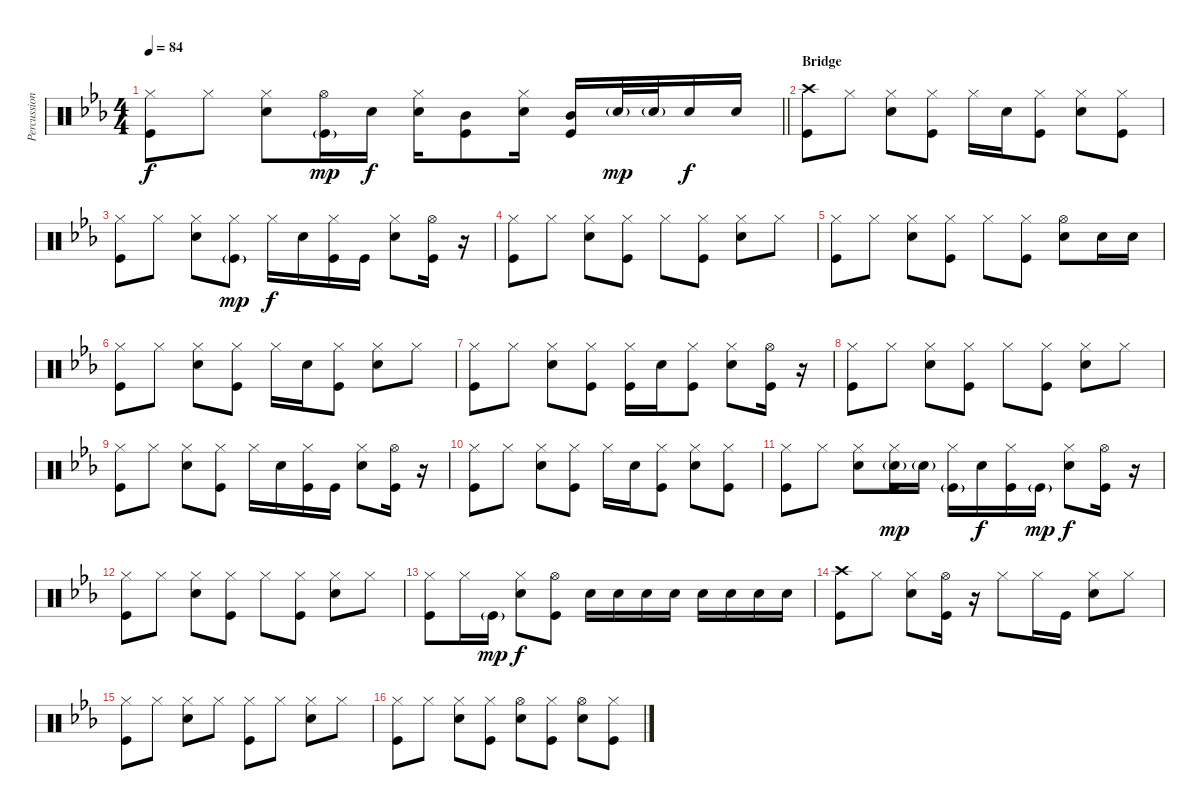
\track ("Percussion" "Percussion") {instrument percussion}
\staff {score}
\articulation defaults
\ts (4 4)
\tempo 84
\clef neutral
\barLineRight lightlight
\ks eb
("Hi-Hat (closed)" "Kick (hit)").8{dy f} "Hi-Hat (closed)".8 ("Hi-Hat (closed)" "Snare (hit) 2").8 ("Hi-Hat (open)" "Kick (hit)"{g}).16{dy mp} "Snare (hit) 2".16{dy f} ("Hi-Hat (closed)" "Snare (hit) 2").16 ("Mid Tom (hit)" "Kick (hit)").8 ("Hi-Hat (closed)" "Snare (hit) 2").16 ("Mid Tom (hit)" "Kick (hit)").16 "Snare (hit) 2"{g}.32{dy mp} "Snare (hit) 2"{g}.32 "Snare (hit) 2".16{dy f} "Snare (hit) 2".16 |
\section ("" "Bridge")
("Crash high (hit)" "Kick (hit)").8 "Hi-Hat (closed)".8 ("Hi-Hat (closed)" "Snare (hit) 2").8 ("Hi-Hat (closed)" "Kick (hit)").8 "Hi-Hat (closed)".16 "Snare (hit) 2".16 ("Hi-Hat (closed)" "Kick (hit)").8 ("Hi-Hat (closed)" "Snare (hit) 2").8 ("Hi-Hat (closed)" "Kick (hit)").8 |
("Hi-Hat (closed)" "Kick (hit)").8 "Hi-Hat (closed)".8 ("Hi-Hat (closed)" "Snare (hit) 2").8 ("Hi-Hat (closed)" "Kick (hit)"{g}).8{dy mp} "Hi-Hat (closed)".16{dy f} "Snare (hit) 2".16 ("Hi-Hat (closed)" "Kick (hit)").16 "Kick (hit)".16 ("Hi-Hat (closed)" "Snare (hit) 2").8 ("Hi-Hat (open)" "Kick (hit)").16 r.16 |
("Hi-Hat (closed)" "Kick (hit)").8 "Hi-Hat (closed)".8 ("Hi-Hat (closed)" "Snare (hit) 2").8 ("Hi-Hat (closed)" "Kick (hit)").8 "Hi-Hat (closed)".8 ("Hi-Hat (closed)" "Kick (hit)").8 ("Hi-Hat (closed)" "Snare (hit) 2").8 "Hi-Hat (closed)".8 |
("Hi-Hat (closed)" "Kick (hit)").8 "Hi-Hat (closed)".8 ("Hi-Hat (closed)" "Snare (hit) 2").8 ("Hi-Hat (closed)" "Kick (hit)").8 "Hi-Hat (closed)".8 ("Hi-Hat (closed)" "Kick (hit)").8 ("Hi-Hat (open)" "Snare (hit) 2").8 "Snare (hit) 2".16 "Snare (hit) 2".16 |
("Hi-Hat (closed)" "Kick (hit)").8 "Hi-Hat (closed)".8 ("Hi-Hat (closed)" "Snare (hit) 2").8 ("Hi-Hat (closed)" "Kick (hit)").8 "Hi-Hat (closed)".16 "Snare (hit) 2".16 ("Hi-Hat (closed)" "Kick (hit)").8 ("Hi-Hat (closed)" "Snare (hit) 2").8 "Hi-Hat (closed)".8 |
("Hi-Hat (closed)" "Kick (hit)").8 "Hi-Hat (closed)".8 ("Hi-Hat (closed)" "Snare (hit) 2").8 ("Hi-Hat (closed)" "Kick (hit)").8 ("Hi-Hat (closed)" "Kick (hit)").16 "Snare (hit) 2".16 ("Hi-Hat (closed)" "Kick (hit)").8 ("Hi-Hat (closed)" "Snare (hit) 2").8 ("Hi-Hat (open)" "Kick (hit)").16 r.16 |
("Hi-Hat (closed)" "Kick (hit)").8 "Hi-Hat (closed)".8 ("Hi-Hat (closed)" "Snare (hit) 2").8 ("Hi-Hat (closed)" "Kick (hit)").8 "Hi-Hat (closed)".8 ("Hi-Hat (closed)" "Kick (hit)").8 ("Hi-Hat (closed)" "Snare (hit) 2").8 "Hi-Hat (closed)".8 |
("Hi-Hat (closed)" "Kick (hit)").8 "Hi-Hat (closed)".8 ("Hi-Hat (closed)" "Snare (hit) 2").8 ("Hi-Hat (closed)" "Kick (hit)").8 "Hi-Hat (closed)".16 "Snare (hit) 2".16 ("Hi-Hat (closed)" "Kick (hit)").16 "Kick (hit)".16 ("Hi-Hat (closed)" "Snare (hit) 2").8 ("Hi-Hat (open)" "Kick (hit)").16 r.16 |
("Hi-Hat (closed)" "Kick (hit)").8 "Hi-Hat (closed)".8 ("Hi-Hat (closed)" "Snare (hit) 2").8 ("Hi-Hat (closed)" "Kick (hit)").8 "Hi-Hat (closed)".16 "Snare (hit) 2".16 ("Hi-Hat (closed)" "Kick (hit)").8 ("Hi-Hat (closed)" "Snare (hit) 2").8 ("Hi-Hat (closed)" "Kick (hit)").8 |
("Hi-Hat (closed)" "Kick (hit)").8 "Hi-Hat (closed)".8 ("Hi-Hat (closed)" "Snare (hit) 2").8 ("Hi-Hat (closed)" "Snare (hit) 2"{g} "Kick (hit)").16{dy mp} "Snare (hit) 2"{g}.16 ("Hi-Hat (closed)" "Kick (hit)"{g}).16 "Snare (hit) 2".16{dy f} ("Hi-Hat (closed)" "Kick (hit)").16 "Kick (hit)"{g}.16{dy mp} ("Hi-Hat (closed)" "Snare (hit) 2").8{dy f} ("Hi-Hat (open)" "Kick (hit)").16 r.16 |
("Hi-Hat (closed)" "Kick (hit)").8 "Hi-Hat (closed)".8 ("Hi-Hat (closed)" "Snare (hit) 2").8 ("Hi-Hat (closed)" "Kick (hit)").8 "Hi-Hat (closed)".8 ("Hi-Hat (closed)" "Kick (hit)").8 ("Hi-Hat (closed)" "Snare (hit) 2").8 "Hi-Hat (closed)".8 |
("Hi-Hat (closed)" "Kick (hit)").8 "Hi-Hat (closed)".16 "Kick (hit)"{g}.16{dy mp} ("Hi-Hat (closed)" "Snare (hit) 2").8{dy f} ("Hi-Hat (open)" "Kick (hit)").8 "Snare (hit) 2".16 "Snare (hit) 2".16 "Snare (hit) 2".16 "Snare (hit) 2".16 "Snare (hit) 2".16 "Snare (hit) 2".16 "Snare (hit) 2".16 "Snare (hit) 2".16 |
("Crash high (hit)" "Kick (hit)").8 "Hi-Hat (closed)".8 ("Hi-Hat (closed)" "Snare (hit) 2").8 ("Hi-Hat (open)" "Kick (hit)").16 r.16 "Hi-Hat (closed)".8 "Hi-Hat (closed)".16 "Kick (hit)".16 ("Hi-Hat (closed)" "Snare (hit) 2").8 "Hi-Hat (closed)".8 |
("Hi-Hat (closed)" "Kick (hit)").8 "Hi-Hat (closed)".8 ("Hi-Hat (closed)" "Snare (hit) 2").8 "Hi-Hat (closed)".8 ("Hi-Hat (closed)" "Kick (hit)").8 "Hi-Hat (closed)".8 ("Hi-Hat (closed)" "Snare (hit) 2").8 "Hi-Hat (closed)".8 |
("Hi-Hat (closed)" "Kick (hit)").8 "Hi-Hat (closed)".8 ("Hi-Hat (closed)" "Snare (hit) 2").8 ("Hi-Hat (closed)" "Kick (hit)").8 ("Hi-Hat (open)" "Snare (hit) 2").8 ("Hi-Hat (closed)" "Kick (hit)").8 ("Hi-Hat (open)" "Snare (hit) 2").8 ("Hi-Hat (closed)" "Kick (hit)").8
